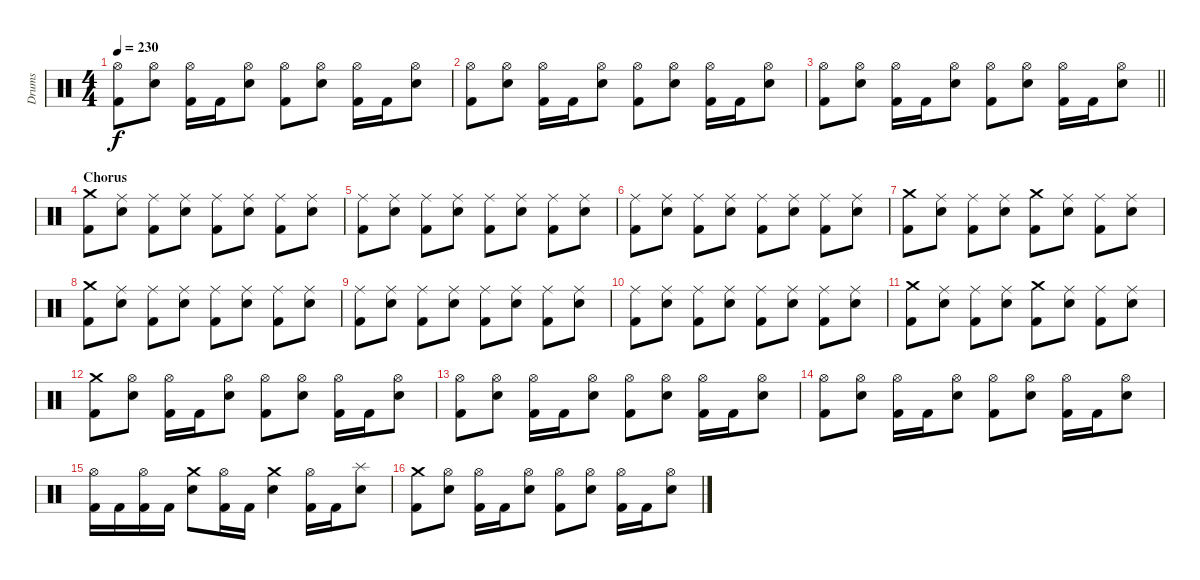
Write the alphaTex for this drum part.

\track ("Drums" "Drums") {instrument percussion}
\staff {score}
\articulation defaults
\ts (4 4)
\tempo 230
\clef neutral
\ks c
("Hi-Hat (open)" "Kick (hit) 2").8{dy f} ("Hi-Hat (open)" "Electric Snare (hit)").8 ("Hi-Hat (open)" "Kick (hit) 2").16 "Kick (hit) 2".16 ("Hi-Hat (open)" "Electric Snare (hit)").8 ("Hi-Hat (open)" "Kick (hit) 2").8 ("Hi-Hat (open)" "Electric Snare (hit)").8 ("Hi-Hat (open)" "Kick (hit) 2").16 "Kick (hit) 2".16 ("Hi-Hat (open)" "Electric Snare (hit)").8 |
("Hi-Hat (open)" "Kick (hit) 2").8 ("Hi-Hat (open)" "Electric Snare (hit)").8 ("Hi-Hat (open)" "Kick (hit) 2").16 "Kick (hit) 2".16 ("Hi-Hat (open)" "Electric Snare (hit)").8 ("Hi-Hat (open)" "Kick (hit) 2").8 ("Hi-Hat (open)" "Electric Snare (hit)").8 ("Hi-Hat (open)" "Kick (hit) 2").16 "Kick (hit) 2".16 ("Hi-Hat (open)" "Electric Snare (hit)").8 |
\barLineRight lightlight
("Hi-Hat (open)" "Kick (hit) 2").8 ("Hi-Hat (open)" "Electric Snare (hit)").8 ("Hi-Hat (open)" "Kick (hit) 2").16 "Kick (hit) 2".16 ("Hi-Hat (open)" "Electric Snare (hit)").8 ("Hi-Hat (open)" "Kick (hit) 2").8 ("Hi-Hat (open)" "Electric Snare (hit)").8 ("Hi-Hat (open)" "Kick (hit) 2").16 "Kick (hit) 2".16 ("Hi-Hat (open)" "Electric Snare (hit)").8 |
\section ("" "Chorus")
("Crash medium (hit)" "Kick (hit) 2").8 ("Ride (middle)" "Electric Snare (hit)").8 ("Ride (middle)" "Kick (hit) 2").8 ("Ride (middle)" "Electric Snare (hit)").8 ("Ride (middle)" "Kick (hit) 2").8 ("Ride (middle)" "Electric Snare (hit)").8 ("Ride (middle)" "Kick (hit) 2").8 ("Ride (middle)" "Electric Snare (hit)").8 |
("Ride (middle)" "Kick (hit) 2").8 ("Ride (middle)" "Electric Snare (hit)").8 ("Ride (middle)" "Kick (hit) 2").8 ("Ride (middle)" "Electric Snare (hit)").8 ("Ride (middle)" "Kick (hit) 2").8 ("Ride (middle)" "Electric Snare (hit)").8 ("Ride (middle)" "Kick (hit) 2").8 ("Ride (middle)" "Electric Snare (hit)").8 |
("Ride (middle)" "Kick (hit) 2").8 ("Ride (middle)" "Electric Snare (hit)").8 ("Ride (middle)" "Kick (hit) 2").8 ("Ride (middle)" "Electric Snare (hit)").8 ("Ride (middle)" "Kick (hit) 2").8 ("Ride (middle)" "Electric Snare (hit)").8 ("Ride (middle)" "Kick (hit) 2").8 ("Ride (middle)" "Electric Snare (hit)").8 |
("Crash medium (hit)" "Kick (hit) 2").8 ("Ride (middle)" "Electric Snare (hit)").8 ("Ride (middle)" "Kick (hit) 2").8 ("Ride (middle)" "Electric Snare (hit)").8 ("Crash medium (hit)" "Kick (hit) 2").8 ("Ride (middle)" "Electric Snare (hit)").8 ("Ride (middle)" "Kick (hit) 2").8 ("Ride (middle)" "Electric Snare (hit)").8 |
("Crash medium (hit)" "Kick (hit) 2").8 ("Ride (middle)" "Electric Snare (hit)").8 ("Ride (middle)" "Kick (hit) 2").8 ("Ride (middle)" "Electric Snare (hit)").8 ("Ride (middle)" "Kick (hit) 2").8 ("Ride (middle)" "Electric Snare (hit)").8 ("Ride (middle)" "Kick (hit) 2").8 ("Ride (middle)" "Electric Snare (hit)").8 |
("Ride (middle)" "Kick (hit) 2").8 ("Ride (middle)" "Electric Snare (hit)").8 ("Ride (middle)" "Kick (hit) 2").8 ("Ride (middle)" "Electric Snare (hit)").8 ("Ride (middle)" "Kick (hit) 2").8 ("Ride (middle)" "Electric Snare (hit)").8 ("Ride (middle)" "Kick (hit) 2").8 ("Ride (middle)" "Electric Snare (hit)").8 |
("Ride (middle)" "Kick (hit) 2").8 ("Ride (middle)" "Electric Snare (hit)").8 ("Ride (middle)" "Kick (hit) 2").8 ("Ride (middle)" "Electric Snare (hit)").8 ("Ride (middle)" "Kick (hit) 2").8 ("Ride (middle)" "Electric Snare (hit)").8 ("Ride (middle)" "Kick (hit) 2").8 ("Ride (middle)" "Electric Snare (hit)").8 |
("Crash medium (hit)" "Kick (hit) 2").8 ("Ride (middle)" "Electric Snare (hit)").8 ("Ride (middle)" "Kick (hit) 2").8 ("Ride (middle)" "Electric Snare (hit)").8 ("Crash medium (hit)" "Kick (hit) 2").8 ("Ride (middle)" "Electric Snare (hit)").8 ("Ride (middle)" "Kick (hit) 2").8 ("Ride (middle)" "Electric Snare (hit)").8 |
("Crash medium (hit)" "Kick (hit) 2").8 ("Hi-Hat (open)" "Electric Snare (hit)").8 ("Hi-Hat (open)" "Kick (hit) 2").16 "Kick (hit) 2".16 ("Hi-Hat (open)" "Electric Snare (hit)").8 ("Hi-Hat (open)" "Kick (hit) 2").8 ("Hi-Hat (open)" "Electric Snare (hit)").8 ("Hi-Hat (open)" "Kick (hit) 2").16 "Kick (hit) 2".16 ("Hi-Hat (open)" "Electric Snare (hit)").8 |
("Hi-Hat (open)" "Kick (hit) 2").8 ("Hi-Hat (open)" "Electric Snare (hit)").8 ("Hi-Hat (open)" "Kick (hit) 2").16 "Kick (hit) 2".16 ("Hi-Hat (open)" "Electric Snare (hit)").8 ("Hi-Hat (open)" "Kick (hit) 2").8 ("Hi-Hat (open)" "Electric Snare (hit)").8 ("Hi-Hat (open)" "Kick (hit) 2").16 "Kick (hit) 2".16 ("Hi-Hat (open)" "Electric Snare (hit)").8 |
("Hi-Hat (open)" "Kick (hit) 2").8 ("Hi-Hat (open)" "Electric Snare (hit)").8 ("Hi-Hat (open)" "Kick (hit) 2").16 "Kick (hit) 2".16 ("Hi-Hat (open)" "Electric Snare (hit)").8 ("Hi-Hat (open)" "Kick (hit) 2").8 ("Hi-Hat (open)" "Electric Snare (hit)").8 ("Hi-Hat (open)" "Kick (hit) 2").16 "Kick (hit) 2".16 ("Hi-Hat (open)" "Electric Snare (hit)").8 |
("Hi-Hat (open)" "Kick (hit) 2").16 "Kick (hit) 2".16 ("Hi-Hat (open)" "Kick (hit) 2").16 "Kick (hit) 2".16 ("Crash medium (hit)" "Electric Snare (hit)").8 ("Hi-Hat (open)" "Kick (hit) 2").16 "Kick (hit) 2".16 ("Crash medium (hit)" "Electric Snare (hit)").4 ("Hi-Hat (open)" "Kick (hit) 2").16 "Kick (hit) 2".16 ("Splash (hit)" "Electric Snare (hit)").8 |
("Crash medium (hit)" "Kick (hit) 2").8 ("Hi-Hat (open)" "Electric Snare (hit)").8 ("Hi-Hat (open)" "Kick (hit) 2").16 "Kick (hit) 2".16 ("Hi-Hat (open)" "Electric Snare (hit)").8 ("Hi-Hat (open)" "Kick (hit) 2").8 ("Hi-Hat (open)" "Electric Snare (hit)").8 ("Hi-Hat (open)" "Kick (hit) 2").16 "Kick (hit) 2".16 ("Hi-Hat (open)" "Electric Snare (hit)").8
